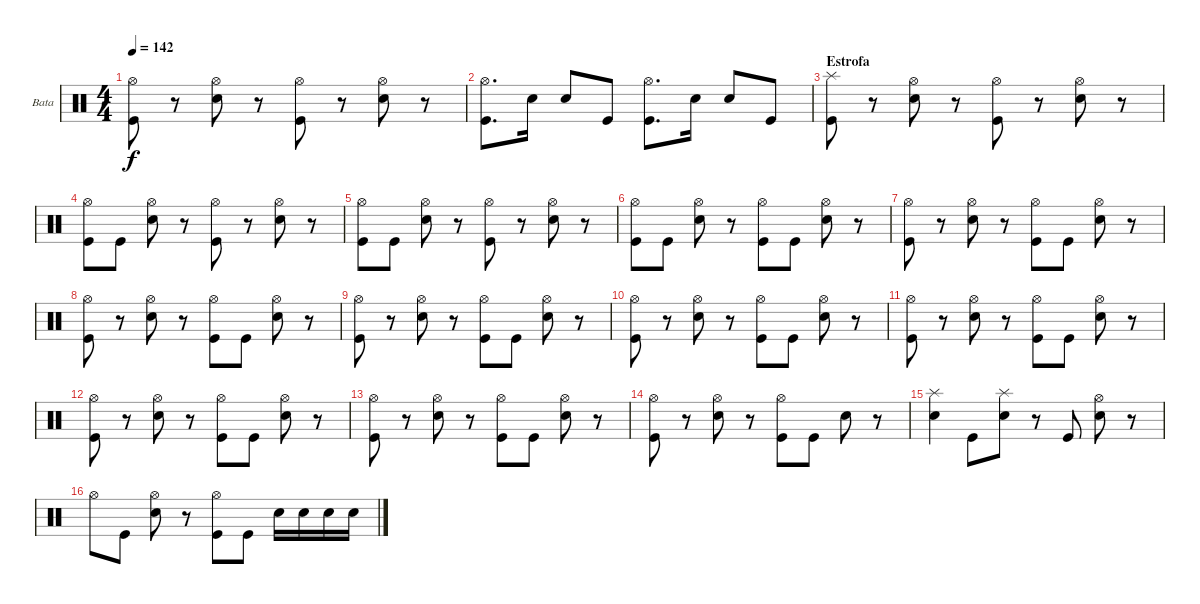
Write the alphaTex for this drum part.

\bracketExtendMode groupsimilarinstruments
\firstSystemTrackNameOrientation horizontal
\otherSystemsTrackNameOrientation horizontal
\track ("Bateria" "Bata") {instrument percussion}
\staff {score}
\articulation defaults
\ts (4 4)
\tempo 142
\clef neutral
\ks c
("Kick (hit)" "Hi-Hat (open)").8{dy f} r.8 ("Hi-Hat (open)" "Snare (hit) 2").8 r.8 ("Hi-Hat (open)" "Kick (hit)").8 r.8 ("Hi-Hat (open)" "Snare (hit) 2").8 r.8 |
("Kick (hit)" "Hi-Hat (open)").8{d} "Snare (hit) 2".16 "Snare (hit) 2".8 "Kick (hit)".8 ("Kick (hit)" "Hi-Hat (open)").8{d} "Snare (hit) 2".16 "Snare (hit) 2".8 "Kick (hit)".8 |
\section ("" "Estrofa")
("Kick (hit)" "Splash (hit)").8 r.8 ("Hi-Hat (open)" "Snare (hit) 2").8 r.8 ("Hi-Hat (open)" "Kick (hit)").8 r.8 ("Hi-Hat (open)" "Snare (hit) 2").8 r.8 |
("Hi-Hat (open)" "Kick (hit)").8 "Kick (hit)".8 ("Hi-Hat (open)" "Snare (hit) 2").8 r.8 ("Hi-Hat (open)" "Kick (hit)").8 r.8 ("Hi-Hat (open)" "Snare (hit) 2").8 r.8 |
("Hi-Hat (open)" "Kick (hit)").8 "Kick (hit)".8 ("Hi-Hat (open)" "Snare (hit) 2").8 r.8 ("Hi-Hat (open)" "Kick (hit)").8 r.8 ("Hi-Hat (open)" "Snare (hit) 2").8 r.8 |
("Hi-Hat (open)" "Kick (hit)").8 "Kick (hit)".8 ("Hi-Hat (open)" "Snare (hit) 2").8 r.8 ("Hi-Hat (open)" "Kick (hit)").8 "Kick (hit)".8 ("Hi-Hat (open)" "Snare (hit) 2").8 r.8 |
("Kick (hit)" "Hi-Hat (open)").8 r.8 ("Hi-Hat (open)" "Snare (hit) 2").8 r.8 ("Hi-Hat (open)" "Kick (hit)").8 "Kick (hit)".8 ("Hi-Hat (open)" "Snare (hit) 2").8 r.8 |
("Kick (hit)" "Hi-Hat (open)").8 r.8 ("Hi-Hat (open)" "Snare (hit) 2").8 r.8 ("Hi-Hat (open)" "Kick (hit)").8 "Kick (hit)".8 ("Hi-Hat (open)" "Snare (hit) 2").8 r.8 |
("Kick (hit)" "Hi-Hat (open)").8 r.8 ("Hi-Hat (open)" "Snare (hit) 2").8 r.8 ("Hi-Hat (open)" "Kick (hit)").8 "Kick (hit)".8 ("Hi-Hat (open)" "Snare (hit) 2").8 r.8 |
("Kick (hit)" "Hi-Hat (open)").8 r.8 ("Hi-Hat (open)" "Snare (hit) 2").8 r.8 ("Hi-Hat (open)" "Kick (hit)").8 "Kick (hit)".8 ("Hi-Hat (open)" "Snare (hit) 2").8 r.8 |
("Kick (hit)" "Hi-Hat (open)").8 r.8 ("Hi-Hat (open)" "Snare (hit) 2").8 r.8 ("Hi-Hat (open)" "Kick (hit)").8 "Kick (hit)".8 ("Hi-Hat (open)" "Snare (hit) 2").8 r.8 |
("Kick (hit)" "Hi-Hat (open)").8 r.8 ("Hi-Hat (open)" "Snare (hit) 2").8 r.8 ("Hi-Hat (open)" "Kick (hit)").8 "Kick (hit)".8 ("Hi-Hat (open)" "Snare (hit) 2").8 r.8 |
("Kick (hit)" "Hi-Hat (open)").8 r.8 ("Hi-Hat (open)" "Snare (hit) 2").8 r.8 ("Hi-Hat (open)" "Kick (hit)").8 "Kick (hit)".8 ("Hi-Hat (open)" "Snare (hit) 2").8 r.8 |
("Kick (hit)" "Hi-Hat (open)").8 r.8 ("Hi-Hat (open)" "Snare (hit) 2").8 r.8 ("Hi-Hat (open)" "Kick (hit)").8 "Kick (hit)".8 "Snare (hit) 2".8 r.8 |
("Snare (hit) 2" "Splash (hit)").4 "Kick (hit)".8 ("Snare (hit) 2" "Splash (hit)").8 r.8 "Kick (hit)".8 ("Snare (hit) 2" "Hi-Hat (open)").8 r.8 |
"Hi-Hat (open)".8 "Kick (hit)".8 ("Snare (hit) 2" "Hi-Hat (open)").8 r.8 ("Kick (hit)" "Hi-Hat (open)").8 "Kick (hit)".8 "Snare (hit) 2".16 "Snare (hit) 2".16 "Snare (hit) 2".16 "Snare (hit) 2".16
